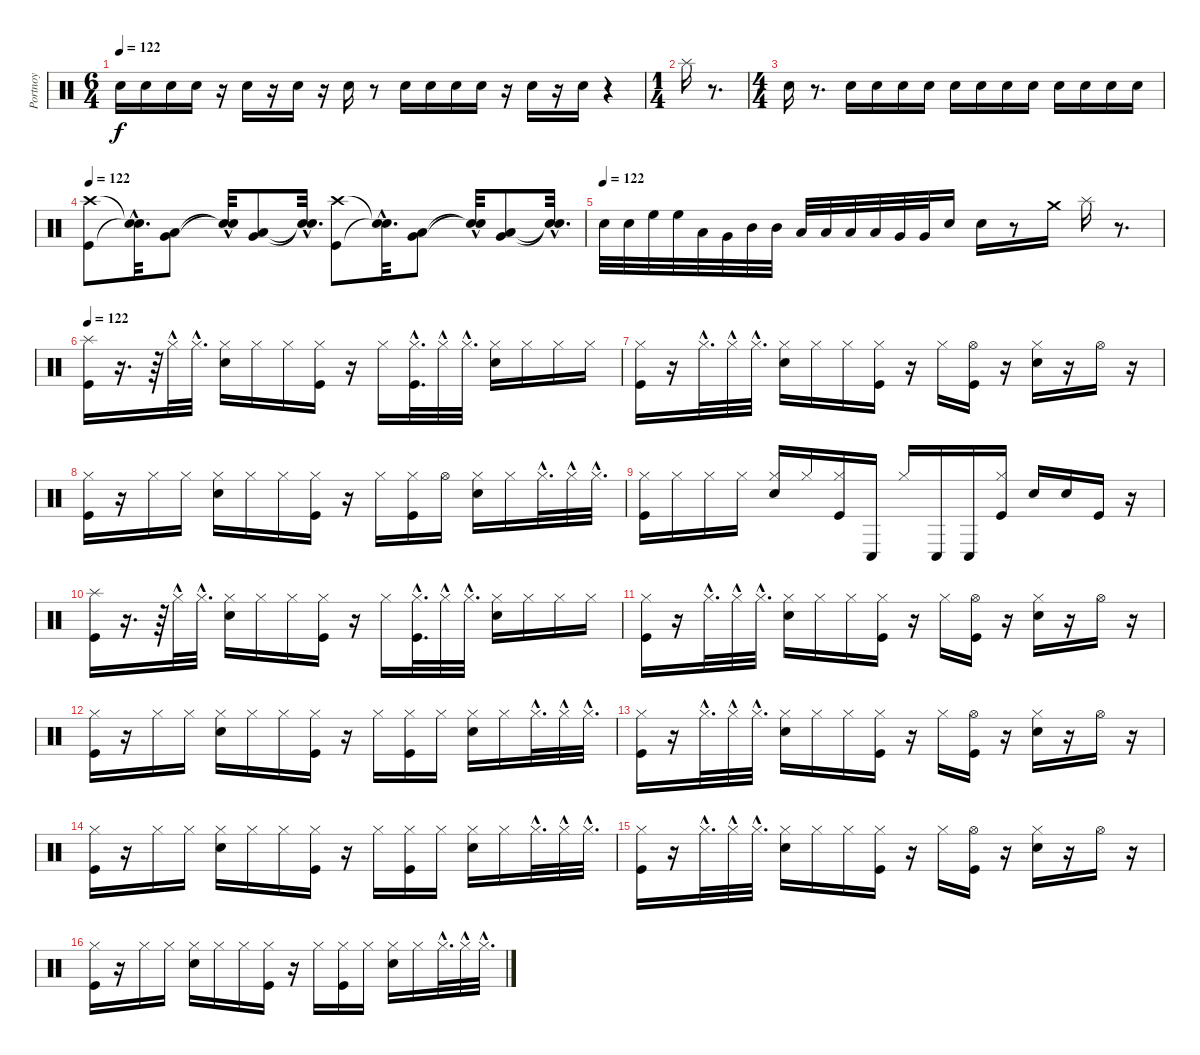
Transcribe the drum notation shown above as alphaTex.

\track ("Portnoy" "Portnoy") {instrument percussion}
\staff {score}
\articulation defaults
\ts (6 4)
\tempo 122
\clef neutral
\ks c "Metronome (bell)".16{dy f} "Metronome (bell)".16 "Metronome (bell)".16 "Metronome (bell)".16
r.16 "Metronome (bell)".16 r.16 "Metronome (bell)".16 r.16 "Metronome (bell)".16 r.8 "Metronome (bell)".16 "Metronome (bell)".16 "Metronome (bell)".16 "Metronome (bell)".16 r.16 "Metronome (bell)".16 r.16 "Metronome (bell)".16 r.4 |
\ts (1 4)
"Splash (hit)".16 r.8{d} |
\ts (4 4)
"Metronome (bell)".16{volume 16} r.8{d} "Metronome (bell)".16{volume 5} "Metronome (bell)".16{volume 6} "Metronome (bell)".16{volume 7} "Metronome (bell)".16{volume 8} "Metronome (bell)".16{volume 8} "Metronome (bell)".16{volume 10} "Metronome (bell)".16{volume 10} "Metronome (bell)".16{volume 11} "Metronome (bell)".16{volume 12} "Metronome (bell)".16{volume 13} "Metronome (bell)".16{volume 14} "Metronome (bell)".16{volume 15} |
\tempo 122
("Crash high (hit)" "Kick (hit)").8{volume 16} ("Snare (hit)"{hac t} "Snare (hit)"{hac t}).32{d} ("Low Tom (hit)" "Very Low Tom (hit)").8 ("Snare (hit)"{hac t} "Snare (hit)"{hac t}).32 ("Very Low Tom (hit)" "Low Floor Tom (hit)").8 ("Snare (hit)"{hac t} "Snare (hit)"{hac t}).32{d} ("Crash high (hit)" "Kick (hit)").8 ("Snare (hit)"{hac t} "Snare (hit)"{hac t}).32{d} ("Low Tom (hit)" "Very Low Tom (hit)").8 ("Snare (hit)"{hac t} "Snare (hit)"{hac t}).32 ("Very Low Tom (hit)" "Low Floor Tom (hit)").8 ("Snare (hit)"{hac t} "Snare (hit)"{hac t}).32{d} |
\tempo (122)
"Metronome (bell)".32 "Metronome (bell)".32 "High Floor Tom (hit)".32 "High Floor Tom (hit)".32 "Low Tom (hit)".32 "Very Low Tom (hit)".32 "Mid Tom (hit)".32 "Mid Tom (hit)".32 "Low Tom (hit)".32 "Low Tom (hit)".32 "Low Floor Tom (hit)".32 "Low Floor Tom (hit)".32 "Very Low Tom (hit)".32 "Very Low Tom (hit)".32 "Metronome (bell)".16 "Metronome (bell)".16 r.8 "Crash medium (hit)".16 "Splash (hit)".16 r.8{d} |
\tempo 122
("Splash (hit)" "Kick (hit)").16 r.16{d} r.64 "Hi-Hat (closed)"{hac}.32 "Hi-Hat (closed)"{hac}.32{d} ("Metronome (bell)" "Hi-Hat (closed)").16 "Hi-Hat (closed)".16 "Hi-Hat (closed)".16 ("Hi-Hat (closed)" "Kick (hit)").16 r.16 "Hi-Hat (closed)".16 ("Hi-Hat (closed)"{hac} "Kick (hit)"{hac}).32{d} "Hi-Hat (closed)"{hac}.32 "Hi-Hat (closed)"{hac}.32{d} ("Metronome (bell)" "Hi-Hat (closed)").16 "Hi-Hat (closed)".16 "Hi-Hat (closed)".16 "Hi-Hat (closed)".16 |
("Hi-Hat (closed)" "Kick (hit)").16 r.16 "Hi-Hat (closed)"{hac}.32{d} "Hi-Hat (closed)"{hac}.32 "Hi-Hat (closed)"{hac}.32{d} ("Hi-Hat (closed)" "Metronome (bell)").16 "Hi-Hat (closed)".16 "Hi-Hat (closed)".16 ("Hi-Hat (closed)" "Kick (hit)").16 r.16 "Hi-Hat (closed)".16 ("Hi-Hat (open)" "Kick (hit)").16 r.16 ("Hi-Hat (closed)" "Metronome (bell)").16 r.16 "Hi-Hat (open)".16 r.16 |
("Hi-Hat (closed)" "Kick (hit)").16 r.16 "Hi-Hat (closed)".16 "Hi-Hat (closed)".16 ("Metronome (bell)" "Hi-Hat (closed)").16 "Hi-Hat (closed)".16 "Hi-Hat (closed)".16 ("Hi-Hat (closed)" "Kick (hit)").16 r.16 "Hi-Hat (closed)".16 ("Hi-Hat (closed)" "Kick (hit)").16 "Hi-Hat (open)".16 ("Metronome (bell)" "Hi-Hat (closed)").16 "Hi-Hat (closed)".16 "Hi-Hat (closed)"{hac}.32{d} "Hi-Hat (closed)"{hac}.32 "Hi-Hat (closed)"{hac}.32{d} |
("Kick (hit)" "Hi-Hat (closed)").16 "Hi-Hat (closed)".16 "Hi-Hat (closed)".16 "Hi-Hat (closed)".16 ("Metronome (bell)" "Hi-Hat (closed)").16 "Hi-Hat (closed)".16 ("Kick (hit)" "Hi-Hat (closed)").16 "Conga low (hit)".16 "Hi-Hat (closed)".16 "Conga low (hit)".16 "Conga low (hit)".16 ("Kick (hit)" "Hi-Hat (closed)").16 "Metronome (bell)".16 "Metronome (bell)".16 "Kick (hit)".16 r.16 |
("Splash (hit)" "Kick (hit)").16 r.16{d} r.64 "Hi-Hat (closed)"{hac}.32 "Hi-Hat (closed)"{hac}.32{d} ("Metronome (bell)" "Hi-Hat (closed)").16 "Hi-Hat (closed)".16 "Hi-Hat (closed)".16 ("Hi-Hat (closed)" "Kick (hit)").16 r.16 "Hi-Hat (closed)".16 ("Hi-Hat (closed)"{hac} "Kick (hit)"{hac}).32{d} "Hi-Hat (closed)"{hac}.32 "Hi-Hat (closed)"{hac}.32{d} ("Metronome (bell)" "Hi-Hat (closed)").16 "Hi-Hat (closed)".16 "Hi-Hat (closed)".16 "Hi-Hat (closed)".16 |
("Hi-Hat (closed)" "Kick (hit)").16 r.16 "Hi-Hat (closed)"{hac}.32{d} "Hi-Hat (closed)"{hac}.32 "Hi-Hat (closed)"{hac}.32{d} ("Hi-Hat (closed)" "Metronome (bell)").16 "Hi-Hat (closed)".16 "Hi-Hat (closed)".16 ("Hi-Hat (closed)" "Kick (hit)").16 r.16 "Hi-Hat (closed)".16 ("Hi-Hat (open)" "Kick (hit)").16 r.16 ("Hi-Hat (closed)" "Metronome (bell)").16 r.16 "Hi-Hat (open)".16 r.16 |
("Hi-Hat (closed)" "Kick (hit)").16 r.16 "Hi-Hat (closed)".16 "Hi-Hat (closed)".16 ("Metronome (bell)" "Hi-Hat (closed)").16 "Hi-Hat (closed)".16 "Hi-Hat (closed)".16 ("Hi-Hat (closed)" "Kick (hit)").16 r.16 "Hi-Hat (closed)".16 ("Hi-Hat (closed)" "Kick (hit)").16 "Hi-Hat (closed)".16 ("Metronome (bell)" "Hi-Hat (closed)").16 "Hi-Hat (closed)".16 "Hi-Hat (closed)"{hac}.32{d} "Hi-Hat (closed)"{hac}.32 "Hi-Hat (closed)"{hac}.32{d} |
("Hi-Hat (closed)" "Kick (hit)").16 r.16 "Hi-Hat (closed)"{hac}.32{d} "Hi-Hat (closed)"{hac}.32 "Hi-Hat (closed)"{hac}.32{d} ("Hi-Hat (closed)" "Metronome (bell)").16 "Hi-Hat (closed)".16 "Hi-Hat (closed)".16 ("Hi-Hat (closed)" "Kick (hit)").16 r.16 "Hi-Hat (closed)".16 ("Hi-Hat (open)" "Kick (hit)").16 r.16 ("Hi-Hat (closed)" "Metronome (bell)").16 r.16 "Hi-Hat (open)".16 r.16 |
("Hi-Hat (closed)" "Kick (hit)").16 r.16 "Hi-Hat (closed)".16 "Hi-Hat (closed)".16 ("Metronome (bell)" "Hi-Hat (closed)").16 "Hi-Hat (closed)".16 "Hi-Hat (closed)".16 ("Hi-Hat (closed)" "Kick (hit)").16 r.16 "Hi-Hat (closed)".16 ("Hi-Hat (closed)" "Kick (hit)").16 "Hi-Hat (closed)".16 ("Metronome (bell)" "Hi-Hat (closed)").16 "Hi-Hat (closed)".16 "Hi-Hat (closed)"{hac}.32{d} "Hi-Hat (closed)"{hac}.32 "Hi-Hat (closed)"{hac}.32{d} |
("Hi-Hat (closed)" "Kick (hit)").16 r.16 "Hi-Hat (closed)"{hac}.32{d} "Hi-Hat (closed)"{hac}.32 "Hi-Hat (closed)"{hac}.32{d} ("Hi-Hat (closed)" "Metronome (bell)").16 "Hi-Hat (closed)".16 "Hi-Hat (closed)".16 ("Hi-Hat (closed)" "Kick (hit)").16 r.16 "Hi-Hat (closed)".16 ("Hi-Hat (open)" "Kick (hit)").16 r.16 ("Hi-Hat (closed)" "Metronome (bell)").16 r.16 "Hi-Hat (open)".16 r.16 |
("Hi-Hat (closed)" "Kick (hit)").16 r.16 "Hi-Hat (closed)".16 "Hi-Hat (closed)".16 ("Metronome (bell)" "Hi-Hat (closed)").16 "Hi-Hat (closed)".16 "Hi-Hat (closed)".16 ("Hi-Hat (closed)" "Kick (hit)").16 r.16 "Hi-Hat (closed)".16 ("Hi-Hat (closed)" "Kick (hit)").16 "Hi-Hat (closed)".16 ("Metronome (bell)" "Hi-Hat (closed)").16 "Hi-Hat (closed)".16 "Hi-Hat (closed)"{hac}.32{d} "Hi-Hat (closed)"{hac}.32 "Hi-Hat (closed)"{hac}.32{d}
